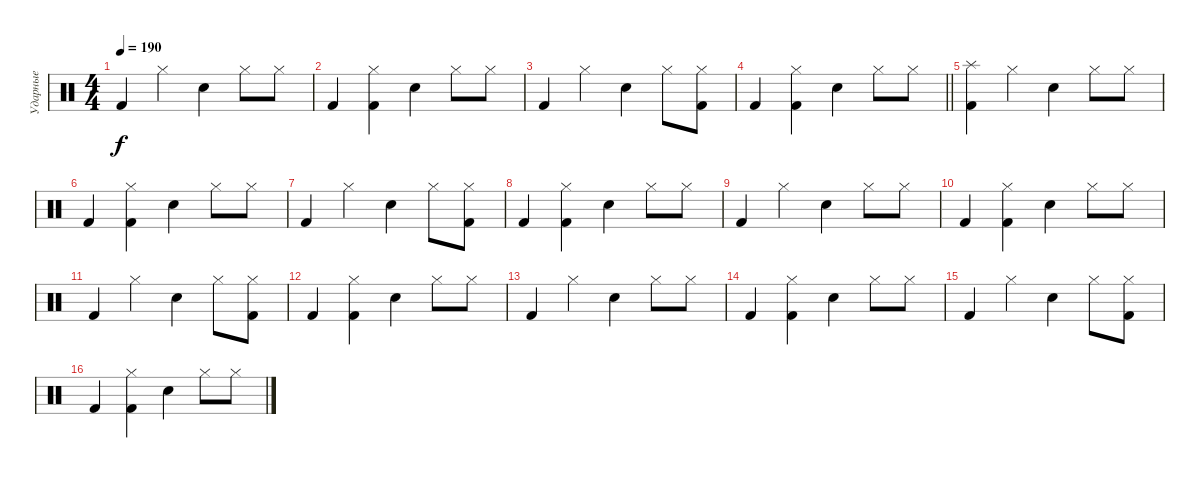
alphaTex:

\track ("Ударные" "Ударные") {instrument percussion}
\staff {score}
\articulation defaults
\ts (4 4)
\tempo 190
\clef neutral
\ks c "Kick (hit) 2".4{dy f} "Hi-Hat (closed)".4 "Electric Snare (hit)".4 "Hi-Hat (closed)".8 "Hi-Hat (closed)".8
|
"Kick (hit) 2".4 ("Kick (hit) 2" "Hi-Hat (closed)").4 "Electric Snare (hit)".4 "Hi-Hat (closed)".8 "Hi-Hat (closed)".8 |
"Kick (hit) 2".4 "Hi-Hat (closed)".4 "Electric Snare (hit)".4 "Hi-Hat (closed)".8 ("Kick (hit) 2" "Hi-Hat (closed)").8 |
\barLineRight lightlight "Kick (hit) 2".4
("Kick (hit) 2" "Hi-Hat (closed)").4 "Electric Snare (hit)".4 "Hi-Hat (closed)".8 "Hi-Hat (closed)".8 |
\section ("" "")
("Splash (hit)" "Kick (hit) 2").4 "Hi-Hat (closed)".4 "Electric Snare (hit)".4 "Hi-Hat (closed)".8 "Hi-Hat (closed)".8 |
"Kick (hit) 2".4 ("Kick (hit) 2" "Hi-Hat (closed)").4 "Electric Snare (hit)".4 "Hi-Hat (closed)".8 "Hi-Hat (closed)".8 |
"Kick (hit) 2".4 "Hi-Hat (closed)".4 "Electric Snare (hit)".4 "Hi-Hat (closed)".8 ("Kick (hit) 2" "Hi-Hat (closed)").8 |
"Kick (hit) 2".4 ("Kick (hit) 2" "Hi-Hat (closed)").4 "Electric Snare (hit)".4 "Hi-Hat (closed)".8 "Hi-Hat (closed)".8 |
"Kick (hit) 2".4 "Hi-Hat (closed)".4 "Electric Snare (hit)".4 "Hi-Hat (closed)".8 "Hi-Hat (closed)".8 |
"Kick (hit) 2".4 ("Kick (hit) 2" "Hi-Hat (closed)").4 "Electric Snare (hit)".4 "Hi-Hat (closed)".8 "Hi-Hat (closed)".8 |
"Kick (hit) 2".4 "Hi-Hat (closed)".4 "Electric Snare (hit)".4 "Hi-Hat (closed)".8 ("Kick (hit) 2" "Hi-Hat (closed)").8 |
"Kick (hit) 2".4 ("Kick (hit) 2" "Hi-Hat (closed)").4 "Electric Snare (hit)".4 "Hi-Hat (closed)".8 "Hi-Hat (closed)".8 |
"Kick (hit) 2".4 "Hi-Hat (closed)".4 "Electric Snare (hit)".4 "Hi-Hat (closed)".8 "Hi-Hat (closed)".8 |
"Kick (hit) 2".4 ("Kick (hit) 2" "Hi-Hat (closed)").4 "Electric Snare (hit)".4 "Hi-Hat (closed)".8 "Hi-Hat (closed)".8 |
"Kick (hit) 2".4 "Hi-Hat (closed)".4 "Electric Snare (hit)".4 "Hi-Hat (closed)".8 ("Kick (hit) 2" "Hi-Hat (closed)").8 |
"Kick (hit) 2".4 ("Kick (hit) 2" "Hi-Hat (closed)").4 "Electric Snare (hit)".4 "Hi-Hat (closed)".8 "Hi-Hat (closed)".8
